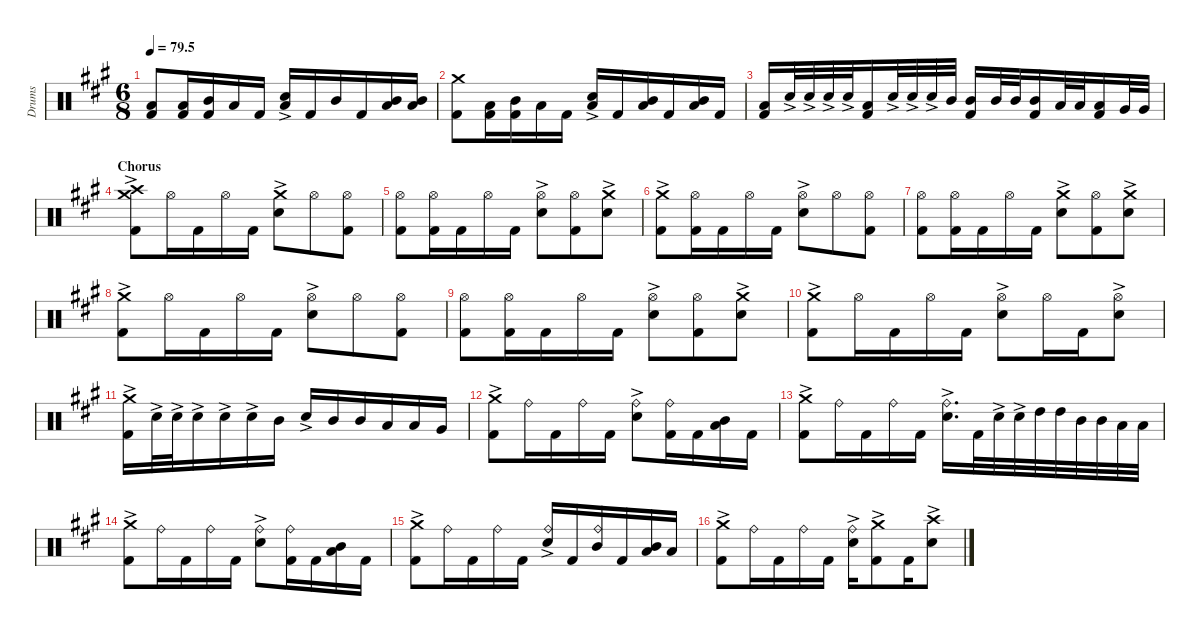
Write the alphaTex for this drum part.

\defaultSystemsLayout 4
\hideDynamics
\bracketExtendMode nobrackets
\otherSystemsTrackNameOrientation horizontal
\track ("Drumkit (don't unmute)" "Drums") {mute instrument percussion}
\staff {score}
\articulation defaults
\ts (6 8)
\tempo
79.5
\accidentals auto
\clef neutral
\ottava regular
\simile none
\ks a
("Low Tom (hit)"{acc forcenatural} "Kick (hit) 2"{acc forcenatural}).8{dy f beam Up} ("Low Tom (hit)"{acc forcenatural} "Kick (hit) 2"{acc forcenatural}).16{beam Up} ("Mid Tom (hit)"{acc forcenatural} "Kick (hit) 2"{acc forcenatural}).16{beam Up} "Low Tom (hit)"{acc forcenatural}.16{beam Up} "Kick (hit) 2"{acc forcenatural}.16{beam Up} ("Snare (hit) 2"{ac acc forcenatural} "Low Tom (hit)"{acc forcenatural}).16{beam Up} "Kick (hit) 2"{acc forcenatural}.16{beam Up} "Mid Tom (hit)"{acc forcenatural}.16{beam Up} "Kick (hit) 2"{acc forcenatural}.16{beam Up} ("Mid Tom (hit)"{acc forcenatural} "Low Tom (hit)"{acc forcenatural}).16{beam Up} ("Mid Tom (hit)"{acc forcenatural} "Low Tom (hit)"{acc forcenatural}).16{beam Up} |
("Crash medium (hit)"{acc forcenatural} "Kick (hit) 2"{acc forcenatural}).8{beam Down} ("Low Tom (hit)"{acc forcenatural} "Kick (hit) 2"{acc forcenatural}).16{beam Down} ("Mid Tom (hit)"{acc forcenatural} "Kick (hit) 2"{acc forcenatural}).16{beam Down} "Low Tom (hit)"{acc forcenatural}.16{beam Down} "Kick (hit) 2"{acc forcenatural}.16{beam Down} ("Snare (hit) 2"{ac acc forcenatural} "Low Tom (hit)"{acc forcenatural}).16{beam Up} "Kick (hit) 2"{acc forcenatural}.16{beam Up} ("Mid Tom (hit)"{acc forcenatural} "Low Tom (hit)"{acc forcenatural}).16{beam Up} "Kick (hit) 2"{acc forcenatural}.16{beam Up} ("Mid Tom (hit)"{acc forcenatural} "Low Tom (hit)"{acc forcenatural}).16{beam Up} "Kick (hit) 2"{acc forcenatural}.16{beam Up} |
("Low Tom (hit)"{acc forcenatural} "Kick (hit) 2"{acc forcenatural}).16{beam Up} "Snare (hit) 2"{ac acc forcenatural}.32{beam Up} "Snare (hit) 2"{ac acc forcenatural}.32{beam Up} "Snare (hit) 2"{ac acc forcenatural}.32{beam Up} "Snare (hit) 2"{ac acc forcenatural}.32{beam Up} ("Low Tom (hit)"{acc forcenatural} "Kick (hit) 2"{acc forcenatural}).16{beam Up} "Snare (hit) 2"{ac acc forcenatural}.32{beam Up} "Snare (hit) 2"{ac acc forcenatural}.32{beam Up} "Snare (hit) 2"{ac acc forcenatural}.32{beam Up} "Mid Tom (hit)"{acc forcenatural}.32{beam Up} ("Mid Tom (hit)"{acc forcenatural} "Kick (hit) 2"{acc forcenatural}).16{beam Up} "Mid Tom (hit)"{acc forcenatural}.32{beam Up} "Mid Tom (hit)"{acc forcenatural}.32{beam Up} ("Mid Tom (hit)"{acc forcenatural} "Kick (hit) 2"{acc forcenatural}).16{beam Up} "Low Tom (hit)"{acc forcenatural}.32{beam Up} "Low Tom (hit)"{acc forcenatural}.32{beam Up} ("Low Tom (hit)"{acc forcenatural} "Kick (hit) 2"{acc forcenatural}).16{beam Up} "Very Low Tom (hit)"{acc forcenatural}.32{beam Up} "Very Low Tom (hit)"{acc forcenatural}.32{beam Up} |
\section ("" "Chorus")
("Crash medium (hit)"{ac acc forcenatural} "Crash high (hit)"{acc forcenatural} "Kick (hit) 2"{acc forcenatural}).8{beam Down} "Hi-Hat (open)"{acc forcenatural}.16{beam Down} "Kick (hit) 2"{acc forcenatural}.16{beam Down} "Hi-Hat (open)"{acc forcenatural}.16{beam Down} "Kick (hit) 2"{acc forcenatural}.16{beam Down} ("Crash medium (hit)"{ac acc forcenatural} "Snare (hit) 2"{ac acc forcenatural}).8{beam Down} "Hi-Hat (open)"{acc forcenatural}.8{beam Down} ("Hi-Hat (open)"{acc forcenatural} "Kick (hit) 2"{acc forcenatural}).8{beam Down} |
("Hi-Hat (open)"{acc forcenatural} "Kick (hit) 2"{acc forcenatural}).8{beam Down} ("Hi-Hat (open)"{acc forcenatural} "Kick (hit) 2"{acc forcenatural}).16{beam Down} "Kick (hit) 2"{acc forcenatural}.16{beam Down} "Hi-Hat (open)"{acc forcenatural}.16{beam Down} "Kick (hit) 2"{acc forcenatural}.16{beam Down} ("Hi-Hat (open)"{acc forcenatural} "Snare (hit) 2"{ac acc forcenatural}).8{beam Down} ("Hi-Hat (open)"{acc forcenatural} "Kick (hit) 2"{acc forcenatural}).8{beam Down} ("Crash medium (hit)"{ac acc forcenatural} "Snare (hit) 2"{ac acc forcenatural}).8{beam Down} |
("Crash medium (hit)"{ac acc forcenatural} "Kick (hit) 2"{acc forcenatural}).8{beam Down} ("Hi-Hat (open)"{acc forcenatural} "Kick (hit) 2"{acc forcenatural}).16{beam Down} "Kick (hit) 2"{acc forcenatural}.16{beam Down} "Hi-Hat (open)"{acc forcenatural}.16{beam Down} "Kick (hit) 2"{acc forcenatural}.16{beam Down} ("Hi-Hat (open)"{acc forcenatural} "Snare (hit) 2"{ac acc forcenatural}).8{beam Down} "Hi-Hat (open)"{acc forcenatural}.8{beam Down} ("Hi-Hat (open)"{acc forcenatural} "Kick (hit) 2"{acc forcenatural}).8{beam Down} |
("Hi-Hat (open)"{acc forcenatural} "Kick (hit) 2"{acc forcenatural}).8{beam Down} ("Hi-Hat (open)"{acc forcenatural} "Kick (hit) 2"{acc forcenatural}).16{beam Down} "Kick (hit) 2"{acc forcenatural}.16{beam Down} "Hi-Hat (open)"{acc forcenatural}.16{beam Down} "Kick (hit) 2"{acc forcenatural}.16{beam Down} ("Crash medium (hit)"{ac acc forcenatural} "Snare (hit) 2"{ac acc forcenatural}).8{beam Down} ("Hi-Hat (open)"{acc forcenatural} "Kick (hit) 2"{acc forcenatural}).8{beam Down} ("Crash medium (hit)"{ac acc forcenatural} "Snare (hit) 2"{ac acc forcenatural}).8{beam Down} |
("Crash medium (hit)"{ac acc forcenatural} "Kick (hit) 2"{acc forcenatural}).8{beam Down} "Hi-Hat (open)"{acc forcenatural}.16{beam Down} "Kick (hit) 2"{acc forcenatural}.16{beam Down} "Hi-Hat (open)"{acc forcenatural}.16{beam Down} "Kick (hit) 2"{acc forcenatural}.16{beam Down} ("Hi-Hat (open)"{acc forcenatural} "Snare (hit) 2"{ac acc forcenatural}).8{beam Down} "Hi-Hat (open)"{acc forcenatural}.8{beam Down} ("Hi-Hat (open)"{acc forcenatural} "Kick (hit) 2"{acc forcenatural}).8{beam Down} |
("Hi-Hat (open)"{acc forcenatural} "Kick (hit) 2"{acc forcenatural}).8{beam Down} ("Hi-Hat (open)"{acc forcenatural} "Kick (hit) 2"{acc forcenatural}).16{beam Down} "Kick (hit) 2"{acc forcenatural}.16{beam Down} "Hi-Hat (open)"{acc forcenatural}.16{beam Down} "Kick (hit) 2"{acc forcenatural}.16{beam Down} ("Hi-Hat (open)"{acc forcenatural} "Snare (hit) 2"{ac acc forcenatural}).8{beam Down} ("Hi-Hat (open)"{acc forcenatural} "Kick (hit) 2"{acc forcenatural}).8{beam Down} ("Crash medium (hit)"{ac acc forcenatural} "Snare (hit) 2"{ac acc forcenatural}).8{beam Down} |
("Crash medium (hit)"{ac acc forcenatural} "Kick (hit) 2"{acc forcenatural}).8{beam Down} "Hi-Hat (open)"{acc forcenatural}.16{beam Down} "Kick (hit) 2"{acc forcenatural}.16{beam Down} "Hi-Hat (open)"{acc forcenatural}.16{beam Down} "Kick (hit) 2"{acc forcenatural}.16{beam Down} ("Hi-Hat (open)"{acc forcenatural} "Snare (hit) 2"{ac acc forcenatural}).8{beam Down} "Hi-Hat (open)"{acc forcenatural}.16{beam Down} "Kick (hit) 2"{acc forcenatural}.16{beam Down} ("Hi-Hat (open)"{acc forcenatural} "Snare (hit) 2"{ac acc forcenatural}).8{beam Down} |
("Crash medium (hit)"{ac acc forcenatural} "Kick (hit) 2"{acc forcenatural}).16{beam Down} "Snare (hit) 2"{ac acc forcenatural}.32{beam Down} "Snare (hit) 2"{ac acc forcenatural}.32{beam Down} "Snare (hit) 2"{ac acc forcenatural}.16{beam Down} "Snare (hit) 2"{ac acc forcenatural}.16{beam Down} "Snare (hit) 2"{ac acc forcenatural}.16{beam Down} "Mid Tom (hit)"{acc forcenatural}.16{beam Down} "Snare (hit) 2"{ac acc forcenatural}.16{beam Up} "Mid Tom (hit)"{acc forcenatural}.16{beam Up} "Mid Tom (hit)"{acc forcenatural}.16{beam Up} "Low Tom (hit)"{acc forcenatural}.16{beam Up} "Low Tom (hit)"{acc forcenatural}.16{beam Up} "Very Low Tom (hit)"{acc forcenatural}.16{beam Up} |
("Crash medium (hit)"{ac acc forcenatural} "Kick (hit) 2"{acc forcenatural}).8{beam Down} "Ride (bell)"{acc forcenatural}.16{beam Down} "Kick (hit) 2"{acc forcenatural}.16{beam Down} "Ride (bell)"{acc forcenatural}.16{beam Down} "Kick (hit) 2"{acc forcenatural}.16{beam Down} ("Ride (bell)"{acc forcenatural} "Snare (hit) 2"{ac acc forcenatural}).8{beam Down} ("Ride (bell)"{acc forcenatural} "Kick (hit) 2"{acc forcenatural}).16{beam Down} "Kick (hit) 2"{acc forcenatural}.16{beam Down} ("Mid Tom (hit)"{acc forcenatural} "Low Tom (hit)"{acc forcenatural}).16{beam Down} "Kick (hit) 2"{acc forcenatural}.16{beam Down} |
("Crash medium (hit)"{ac acc forcenatural} "Kick (hit) 2"{acc forcenatural}).8{beam Down} "Ride (bell)"{acc forcenatural}.16{beam Down} "Kick (hit) 2"{acc forcenatural}.16{beam Down} "Ride (bell)"{acc forcenatural}.16{beam Down} "Kick (hit) 2"{acc forcenatural}.16{beam Down} ("Ride (bell)"{acc forcenatural} "Snare (hit) 2"{ac acc forcenatural}).16{d beam Down} "Kick (hit) 2"{acc forcenatural}.32{beam Down} "Snare (hit) 2"{ac acc forcenatural}.32{beam Down} "Snare (hit) 2"{ac acc forcenatural}.32{beam Down} "High Tom (hit)"{acc forcenatural}.32{beam Down} "High Tom (hit)"{acc forcenatural}.32{beam Down} "Mid Tom (hit)"{acc forcenatural}.32{beam Down} "Mid Tom (hit)"{acc forcenatural}.32{beam Down} "Low Tom (hit)"{acc forcenatural}.32{beam Down} "Low Tom (hit)"{acc forcenatural}.32{beam Down} |
("Crash medium (hit)"{ac acc forcenatural} "Kick (hit) 2"{acc forcenatural}).8{beam Down} "Ride (bell)"{acc forcenatural}.16{beam Down} "Kick (hit) 2"{acc forcenatural}.16{beam Down} "Ride (bell)"{acc forcenatural}.16{beam Down} "Kick (hit) 2"{acc forcenatural}.16{beam Down} ("Ride (bell)"{acc forcenatural} "Snare (hit) 2"{ac acc forcenatural}).8{beam Down} ("Ride (bell)"{acc forcenatural} "Kick (hit) 2"{acc forcenatural}).16{beam Down} "Kick (hit) 2"{acc forcenatural}.16{beam Down} ("Mid Tom (hit)"{acc forcenatural} "Low Tom (hit)"{acc forcenatural}).16{beam Down} "Kick (hit) 2"{acc forcenatural}.16{beam Down} |
("Crash medium (hit)"{ac acc forcenatural} "Kick (hit) 2"{acc forcenatural}).8{beam Down} "Ride (bell)"{acc forcenatural}.16{beam Down} "Kick (hit) 2"{acc forcenatural}.16{beam Down} "Ride (bell)"{acc forcenatural}.16{beam Down} "Kick (hit) 2"{acc forcenatural}.16{beam Down} ("Ride (bell)"{acc forcenatural} "Snare (hit) 2"{ac acc forcenatural}).16{beam Up} "Kick (hit) 2"{acc forcenatural}.16{beam Up} ("Ride (bell)"{acc forcenatural} "Mid Tom (hit)"{acc forcenatural}).16{beam Up} "Kick (hit) 2"{acc forcenatural}.16{beam Up} ("Mid Tom (hit)"{acc forcenatural} "Low Tom (hit)"{acc forcenatural}).16{beam Up} "Low Tom (hit)"{acc forcenatural}.16{beam Up} |
("Crash medium (hit)"{ac acc forcenatural} "Kick (hit) 2"{acc forcenatural}).8{beam Down} "Ride (bell)"{acc forcenatural}.16{beam Down} "Kick (hit) 2"{acc forcenatural}.16{beam Down} "Ride (bell)"{acc forcenatural}.16{beam Down} "Kick (hit) 2"{acc forcenatural}.16{beam Down} ("Ride (bell)"{acc forcenatural} "Snare (hit) 2"{ac acc forcenatural}).16{beam Down} ("Crash medium (hit)"{ac acc forcenatural} "Kick (hit) 2"{acc forcenatural}).8{beam Down} "Kick (hit) 2"{acc forcenatural}.16{beam Down} ("Crash high (hit)"{acc forcenatural} "Snare (hit) 2"{ac acc forcenatural}).8{beam Down}
